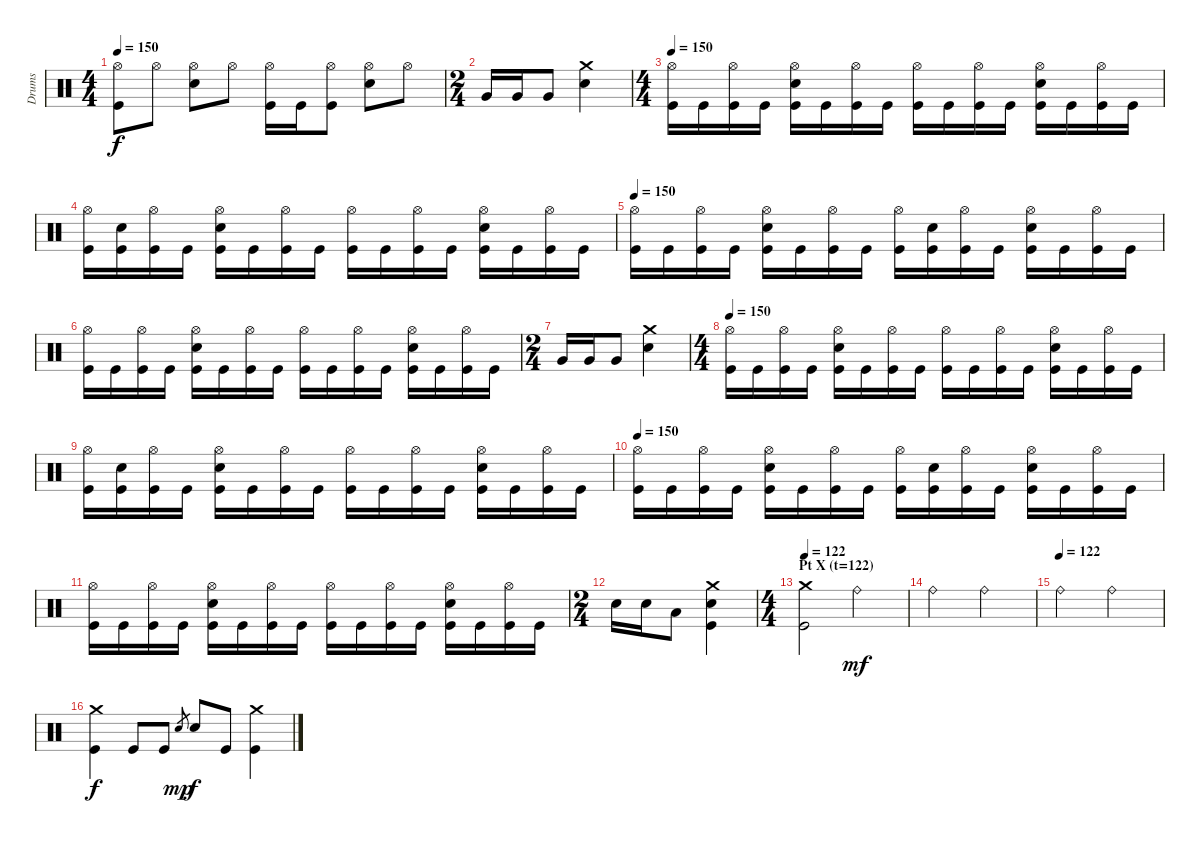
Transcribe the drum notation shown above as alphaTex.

\track ("Drums" "Drums") {instrument percussion}
\staff {score}
\articulation defaults
\ts (4 4)
\tempo 150
\clef neutral
\ks c
("Kick (hit)" "Hi-Hat (open)").8{dy f} "Hi-Hat (open)".8 ("Electric Snare (hit)" "Hi-Hat (open)").8 "Hi-Hat (open)".8 ("Kick (hit)" "Hi-Hat (open)").16 "Kick (hit)".16 ("Kick (hit)" "Hi-Hat (open)").8 ("Electric Snare (hit)" "Hi-Hat (open)").8 "Hi-Hat (open)".8 |
\ts (2 4)
"Very Low Tom (hit)".16 "Very Low Tom (hit)".16 "Very Low Tom (hit)".8 ("Electric Snare (hit)" "Crash medium (hit)").4 |
\ts (4 4)
\tempo 150
("Kick (hit)" "Hi-Hat (open)").16 "Kick (hit)".16 ("Kick (hit)" "Hi-Hat (open)").16 "Kick (hit)".16 ("Kick (hit)" "Electric Snare (hit)" "Hi-Hat (open)").16 "Kick (hit)".16 ("Kick (hit)" "Hi-Hat (open)").16 "Kick (hit)".16 ("Kick (hit)" "Hi-Hat (open)").16 "Kick (hit)".16 ("Kick (hit)" "Hi-Hat (open)").16 "Kick (hit)".16 ("Kick (hit)" "Electric Snare (hit)" "Hi-Hat (open)").16 "Kick (hit)".16 ("Kick (hit)" "Hi-Hat (open)").16 "Kick (hit)".16 |
("Kick (hit)" "Hi-Hat (open)").16 ("Kick (hit)" "Electric Snare (hit)").16 ("Kick (hit)" "Hi-Hat (open)").16 "Kick (hit)".16 ("Kick (hit)" "Electric Snare (hit)" "Hi-Hat (open)").16 "Kick (hit)".16 ("Kick (hit)" "Hi-Hat (open)").16 "Kick (hit)".16 ("Kick (hit)" "Hi-Hat (open)").16 "Kick (hit)".16 ("Kick (hit)" "Hi-Hat (open)").16 "Kick (hit)".16 ("Kick (hit)" "Electric Snare (hit)" "Hi-Hat (open)").16 "Kick (hit)".16 ("Kick (hit)" "Hi-Hat (open)").16 "Kick (hit)".16 |
\tempo 150
("Kick (hit)" "Hi-Hat (open)").16 "Kick (hit)".16 ("Kick (hit)" "Hi-Hat (open)").16 "Kick (hit)".16 ("Kick (hit)" "Electric Snare (hit)" "Hi-Hat (open)").16 "Kick (hit)".16 ("Kick (hit)" "Hi-Hat (open)").16 "Kick (hit)".16 ("Kick (hit)" "Hi-Hat (open)").16 ("Kick (hit)" "Electric Snare (hit)").16 ("Kick (hit)" "Hi-Hat (open)").16 "Kick (hit)".16 ("Kick (hit)" "Electric Snare (hit)" "Hi-Hat (open)").16 "Kick (hit)".16 ("Kick (hit)" "Hi-Hat (open)").16 "Kick (hit)".16 |
("Kick (hit)" "Hi-Hat (open)").16 "Kick (hit)".16 ("Kick (hit)" "Hi-Hat (open)").16 "Kick (hit)".16 ("Kick (hit)" "Electric Snare (hit)" "Hi-Hat (open)").16 "Kick (hit)".16 ("Kick (hit)" "Hi-Hat (open)").16 "Kick (hit)".16 ("Kick (hit)" "Hi-Hat (open)").16 "Kick (hit)".16 ("Kick (hit)" "Hi-Hat (open)").16 "Kick (hit)".16 ("Kick (hit)" "Electric Snare (hit)" "Hi-Hat (open)").16 "Kick (hit)".16 ("Kick (hit)" "Hi-Hat (open)").16 "Kick (hit)".16 |
\ts (2 4)
"Very Low Tom (hit)".16 "Very Low Tom (hit)".16 "Very Low Tom (hit)".8 ("Electric Snare (hit)" "Crash medium (hit)").4 |
\ts (4 4)
\tempo 150
("Kick (hit)" "Hi-Hat (open)").16 "Kick (hit)".16 ("Kick (hit)" "Hi-Hat (open)").16 "Kick (hit)".16 ("Kick (hit)" "Electric Snare (hit)" "Hi-Hat (open)").16 "Kick (hit)".16 ("Kick (hit)" "Hi-Hat (open)").16 "Kick (hit)".16 ("Kick (hit)" "Hi-Hat (open)").16 "Kick (hit)".16 ("Kick (hit)" "Hi-Hat (open)").16 "Kick (hit)".16 ("Kick (hit)" "Electric Snare (hit)" "Hi-Hat (open)").16 "Kick (hit)".16 ("Kick (hit)" "Hi-Hat (open)").16 "Kick (hit)".16 |
("Kick (hit)" "Hi-Hat (open)").16 ("Kick (hit)" "Electric Snare (hit)").16 ("Kick (hit)" "Hi-Hat (open)").16 "Kick (hit)".16 ("Kick (hit)" "Electric Snare (hit)" "Hi-Hat (open)").16 "Kick (hit)".16 ("Kick (hit)" "Hi-Hat (open)").16 "Kick (hit)".16 ("Kick (hit)" "Hi-Hat (open)").16 "Kick (hit)".16 ("Kick (hit)" "Hi-Hat (open)").16 "Kick (hit)".16 ("Kick (hit)" "Electric Snare (hit)" "Hi-Hat (open)").16 "Kick (hit)".16 ("Kick (hit)" "Hi-Hat (open)").16 "Kick (hit)".16 |
\tempo 150
("Kick (hit)" "Hi-Hat (open)").16 "Kick (hit)".16 ("Kick (hit)" "Hi-Hat (open)").16 "Kick (hit)".16 ("Kick (hit)" "Electric Snare (hit)" "Hi-Hat (open)").16 "Kick (hit)".16 ("Kick (hit)" "Hi-Hat (open)").16 "Kick (hit)".16 ("Kick (hit)" "Hi-Hat (open)").16 ("Kick (hit)" "Electric Snare (hit)").16 ("Kick (hit)" "Hi-Hat (open)").16 "Kick (hit)".16 ("Kick (hit)" "Electric Snare (hit)" "Hi-Hat (open)").16 "Kick (hit)".16 ("Kick (hit)" "Hi-Hat (open)").16 "Kick (hit)".16 |
("Kick (hit)" "Hi-Hat (open)").16 "Kick (hit)".16 ("Kick (hit)" "Hi-Hat (open)").16 "Kick (hit)".16 ("Kick (hit)" "Electric Snare (hit)" "Hi-Hat (open)").16 "Kick (hit)".16 ("Kick (hit)" "Hi-Hat (open)").16 "Kick (hit)".16 ("Kick (hit)" "Hi-Hat (open)").16 "Kick (hit)".16 ("Kick (hit)" "Hi-Hat (open)").16 "Kick (hit)".16 ("Kick (hit)" "Electric Snare (hit)" "Hi-Hat (open)").16 "Kick (hit)".16 ("Kick (hit)" "Hi-Hat (open)").16 "Kick (hit)".16 |
\ts (2 4)
"Electric Snare (hit)".16 "Electric Snare (hit)".16 "Low Tom (hit)".8 ("Kick (hit)" "Electric Snare (hit)" "Crash medium (hit)").4 |
\ts (4 4)
\section ("" "Pt X (t=122)")
\tempo 122
("Kick (hit)" "Crash medium (hit)").2 "Ride (bell)".2{dy mf} |
"Ride (bell)".2 "Ride (bell)".2 |
\tempo (122)
"Ride (bell)".2 "Ride (bell)".2 |
("Kick (hit)" "Crash medium (hit)").4{dy f} "Kick (hit)".8 "Kick (hit)".8 "Electric Snare (hit)".8{gr dy mp} "Electric Snare (hit)".8{dy f} "Kick (hit)".8 ("Kick (hit)" "Crash medium (hit)").4
